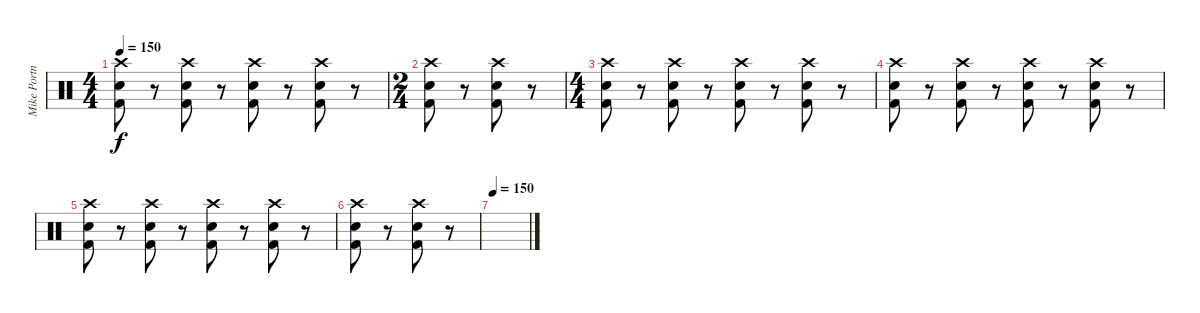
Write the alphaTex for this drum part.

\track ("Mike Portnoy" "Mike Portn") {instrument percussion}
\staff {score}
\articulation defaults
\ts (4 4)
\tempo 150
\clef neutral
\ks c
("Crash high (hit)" "Electric Snare (hit)" "Kick (hit) 2").8{dy f} r.8 ("Crash high (hit)" "Electric Snare (hit)" "Kick (hit) 2").8 r.8 ("Crash high (hit)" "Electric Snare (hit)" "Kick (hit) 2").8 r.8 ("Crash high (hit)" "Electric Snare (hit)" "Kick (hit) 2").8 r.8 |
\ts (2 4)
("Crash high (hit)" "Electric Snare (hit)" "Kick (hit) 2").8 r.8 ("Crash high (hit)" "Electric Snare (hit)" "Kick (hit) 2").8 r.8 |
\ts (4 4)
("Crash high (hit)" "Electric Snare (hit)" "Kick (hit) 2").8 r.8 ("Crash high (hit)" "Electric Snare (hit)" "Kick (hit) 2").8 r.8 ("Crash high (hit)" "Electric Snare (hit)" "Kick (hit) 2").8 r.8 ("Crash high (hit)" "Electric Snare (hit)" "Kick (hit) 2").8 r.8 |
("Crash high (hit)" "Electric Snare (hit)" "Kick (hit) 2").8 r.8 ("Crash high (hit)" "Electric Snare (hit)" "Kick (hit) 2").8 r.8 ("Crash high (hit)" "Electric Snare (hit)" "Kick (hit) 2").8 r.8 ("Crash high (hit)" "Electric Snare (hit)" "Kick (hit) 2").8 r.8 |
("Crash high (hit)" "Electric Snare (hit)" "Kick (hit) 2").8 r.8 ("Crash high (hit)" "Electric Snare (hit)" "Kick (hit) 2").8 r.8 ("Crash high (hit)" "Electric Snare (hit)" "Kick (hit) 2").8 r.8 ("Crash high (hit)" "Electric Snare (hit)" "Kick (hit) 2").8 r.8 |
("Crash high (hit)" "Electric Snare (hit)" "Kick (hit) 2").8 r.8 ("Crash high (hit)" "Electric Snare (hit)" "Kick (hit) 2").8 r.8 |
\tempo 150
